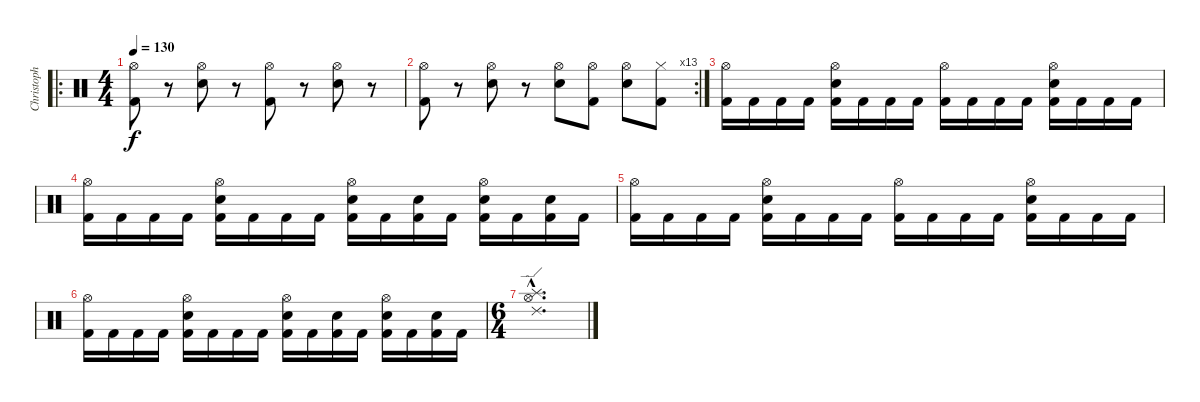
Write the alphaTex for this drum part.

\track ("Christoph Schneider" "Christoph ") {instrument percussion}
\staff {score}
\articulation defaults
\ro
\ts (4 4)
\tempo 130
\clef neutral
\ks c
("Hi-Hat (open)" "Kick (hit) 2").8{dy f} r.8 ("Hi-Hat (open)" "Electric Snare (hit)").8 r.8 ("Hi-Hat (open)" "Kick (hit) 2").8 r.8 ("Hi-Hat (open)" "Electric Snare (hit)").8 r.8 |
\rc 13
("Hi-Hat (open)" "Kick (hit) 2").8 r.8 ("Hi-Hat (open)" "Electric Snare (hit)").8 r.8 ("Hi-Hat (open)" "Electric Snare (hit)").8 ("Hi-Hat (open)" "Kick (hit) 2").8 ("Hi-Hat (open)" "Electric Snare (hit)").8 ("Hi-Hat (closed)" "Kick (hit) 2").8 |
("Hi-Hat (open)" "Kick (hit) 2").16 "Kick (hit) 2".16 "Kick (hit) 2".16 "Kick (hit) 2".16 ("Hi-Hat (open)" "Electric Snare (hit)" "Kick (hit) 2").16 "Kick (hit) 2".16 "Kick (hit) 2".16 "Kick (hit) 2".16 ("Hi-Hat (open)" "Kick (hit) 2").16 "Kick (hit) 2".16 "Kick (hit) 2".16 "Kick (hit) 2".16 ("Hi-Hat (open)" "Electric Snare (hit)" "Kick (hit) 2").16 "Kick (hit) 2".16 "Kick (hit) 2".16 "Kick (hit) 2".16 |
("Hi-Hat (open)" "Kick (hit) 2").16 "Kick (hit) 2".16 "Kick (hit) 2".16 "Kick (hit) 2".16 ("Hi-Hat (open)" "Electric Snare (hit)" "Kick (hit) 2").16 "Kick (hit) 2".16 "Kick (hit) 2".16 "Kick (hit) 2".16 ("Hi-Hat (open)" "Electric Snare (hit)" "Kick (hit) 2").16 "Kick (hit) 2".16 ("Electric Snare (hit)" "Kick (hit) 2").16 "Kick (hit) 2".16 ("Hi-Hat (open)" "Electric Snare (hit)" "Kick (hit) 2").16 "Kick (hit) 2".16 ("Electric Snare (hit)" "Kick (hit) 2").16 "Kick (hit) 2".16 |
("Hi-Hat (open)" "Kick (hit) 2").16 "Kick (hit) 2".16 "Kick (hit) 2".16 "Kick (hit) 2".16 ("Hi-Hat (open)" "Electric Snare (hit)" "Kick (hit) 2").16 "Kick (hit) 2".16 "Kick (hit) 2".16 "Kick (hit) 2".16 ("Hi-Hat (open)" "Kick (hit) 2").16 "Kick (hit) 2".16 "Kick (hit) 2".16 "Kick (hit) 2".16 ("Hi-Hat (open)" "Electric Snare (hit)" "Kick (hit) 2").16 "Kick (hit) 2".16 "Kick (hit) 2".16 "Kick (hit) 2".16 |
("Hi-Hat (open)" "Kick (hit) 2").16 "Kick (hit) 2".16 "Kick (hit) 2".16 "Kick (hit) 2".16 ("Hi-Hat (open)" "Electric Snare (hit)" "Kick (hit) 2").16 "Kick (hit) 2".16 "Kick (hit) 2".16 "Kick (hit) 2".16 ("Hi-Hat (open)" "Electric Snare (hit)" "Kick (hit) 2").16 "Kick (hit) 2".16 ("Electric Snare (hit)" "Kick (hit) 2").16 "Kick (hit) 2".16 ("Hi-Hat (open)" "Electric Snare (hit)" "Kick (hit) 2").16 "Kick (hit) 2".16 ("Electric Snare (hit)" "Kick (hit) 2").16 "Kick (hit) 2".16 |
\ts (6 4)
("Hi-Hat (open)"{hac} "Ride (edge) 2"{hac} "Splash (hit)"{hac}).1{d}
